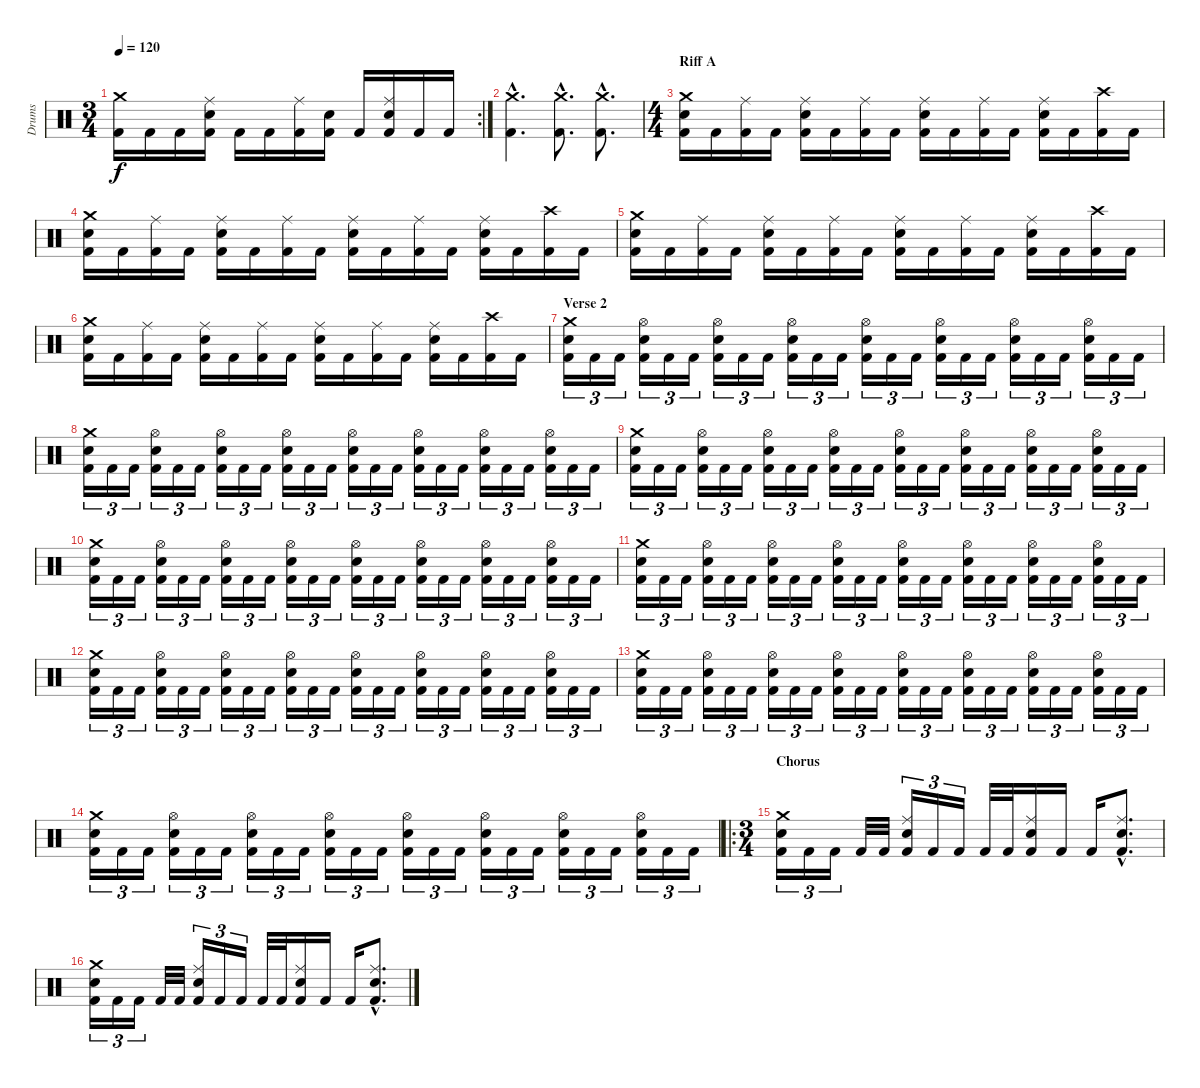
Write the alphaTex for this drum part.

\track ("Drums" "Drums") {instrument percussion}
\staff {score}
\articulation defaults
\rc 2
\ts (3 4)
\tempo 120
\clef neutral
\ks c
("Crash medium (hit)" "Kick (hit) 2").16{dy f} "Kick (hit) 2".16 "Kick (hit) 2".16 ("Ride (middle)" "Electric Snare (hit)" "Kick (hit) 2").16 "Kick (hit) 2".16 "Kick (hit) 2".16 ("Ride (middle)" "Kick (hit) 2").16 ("Electric Snare (hit)" "Kick (hit) 2").16 "Kick (hit) 2".16 ("Ride (middle)" "Electric Snare (hit)" "Kick (hit) 2").16 "Kick (hit) 2".16 "Kick (hit) 2".16 |
("Crash medium (hit)"{hac} "Kick (hit) 2"{hac}).4{d} ("Crash medium (hit)"{hac} "Kick (hit) 2"{hac}).8{d} ("Crash medium (hit)"{hac} "Kick (hit) 2"{hac}).8{d} |
\ts (4 4)
\section ("" "Riff A")
("Crash medium (hit)" "Electric Snare (hit)" "Kick (hit) 2").16 "Kick (hit) 2".16 ("Ride (middle)" "Kick (hit) 2").16 "Kick (hit) 2".16 ("Ride (middle)" "Electric Snare (hit)" "Kick (hit) 2").16 "Kick (hit) 2".16 ("Ride (middle)" "Kick (hit) 2").16 "Kick (hit) 2".16 ("Ride (middle)" "Electric Snare (hit)" "Kick (hit) 2").16 "Kick (hit) 2".16 ("Ride (middle)" "Kick (hit) 2").16 "Kick (hit) 2".16 ("Ride (middle)" "Electric Snare (hit)" "Kick (hit) 2").16 "Kick (hit) 2".16 ("Crash high (hit)" "Kick (hit) 2").16 "Kick (hit) 2".16 |
("Crash medium (hit)" "Electric Snare (hit)" "Kick (hit) 2").16 "Kick (hit) 2".16 ("Ride (middle)" "Kick (hit) 2").16 "Kick (hit) 2".16 ("Ride (middle)" "Electric Snare (hit)" "Kick (hit) 2").16 "Kick (hit) 2".16 ("Ride (middle)" "Kick (hit) 2").16 "Kick (hit) 2".16 ("Ride (middle)" "Electric Snare (hit)" "Kick (hit) 2").16 "Kick (hit) 2".16 ("Ride (middle)" "Kick (hit) 2").16 "Kick (hit) 2".16 ("Ride (middle)" "Electric Snare (hit)" "Kick (hit) 2").16 "Kick (hit) 2".16 ("Crash high (hit)" "Kick (hit) 2").16 "Kick (hit) 2".16 |
("Crash medium (hit)" "Electric Snare (hit)" "Kick (hit) 2").16 "Kick (hit) 2".16 ("Ride (middle)" "Kick (hit) 2").16 "Kick (hit) 2".16 ("Ride (middle)" "Electric Snare (hit)" "Kick (hit) 2").16 "Kick (hit) 2".16 ("Ride (middle)" "Kick (hit) 2").16 "Kick (hit) 2".16 ("Ride (middle)" "Electric Snare (hit)" "Kick (hit) 2").16 "Kick (hit) 2".16 ("Ride (middle)" "Kick (hit) 2").16 "Kick (hit) 2".16 ("Ride (middle)" "Electric Snare (hit)" "Kick (hit) 2").16 "Kick (hit) 2".16 ("Crash high (hit)" "Kick (hit) 2").16 "Kick (hit) 2".16 |
("Crash medium (hit)" "Electric Snare (hit)" "Kick (hit) 2").16 "Kick (hit) 2".16 ("Ride (middle)" "Kick (hit) 2").16 "Kick (hit) 2".16 ("Ride (middle)" "Electric Snare (hit)" "Kick (hit) 2").16 "Kick (hit) 2".16 ("Ride (middle)" "Kick (hit) 2").16 "Kick (hit) 2".16 ("Ride (middle)" "Electric Snare (hit)" "Kick (hit) 2").16 "Kick (hit) 2".16 ("Ride (middle)" "Kick (hit) 2").16 "Kick (hit) 2".16 ("Ride (middle)" "Electric Snare (hit)" "Kick (hit) 2").16 "Kick (hit) 2".16 ("Crash high (hit)" "Kick (hit) 2").16 "Kick (hit) 2".16 |
\section ("" "Verse 2")
("Crash medium (hit)" "Electric Snare (hit)" "Kick (hit) 2").16{tu (3 2)} "Kick (hit) 2".16{tu (3 2)} "Kick (hit) 2".16{tu (3 2)} ("Hi-Hat (open)" "Electric Snare (hit)" "Kick (hit) 2").16{tu (3 2)} "Kick (hit) 2".16{tu (3 2)} "Kick (hit) 2".16{tu (3 2)} ("Hi-Hat (open)" "Electric Snare (hit)" "Kick (hit) 2").16{tu (3 2)} "Kick (hit) 2".16{tu (3 2)} "Kick (hit) 2".16{tu (3 2)} ("Hi-Hat (open)" "Electric Snare (hit)" "Kick (hit) 2").16{tu (3 2)} "Kick (hit) 2".16{tu (3 2)} "Kick (hit) 2".16{tu (3 2)} ("Hi-Hat (open)" "Electric Snare (hit)" "Kick (hit) 2").16{tu (3 2)} "Kick (hit) 2".16{tu (3 2)} "Kick (hit) 2".16{tu (3 2)} ("Hi-Hat (open)" "Electric Snare (hit)" "Kick (hit) 2").16{tu (3 2)} "Kick (hit) 2".16{tu (3 2)} "Kick (hit) 2".16{tu (3 2)} ("Hi-Hat (open)" "Electric Snare (hit)" "Kick (hit) 2").16{tu (3 2)} "Kick (hit) 2".16{tu (3 2)} "Kick (hit) 2".16{tu (3 2)} ("Hi-Hat (open)" "Electric Snare (hit)" "Kick (hit) 2").16{tu (3 2)} "Kick (hit) 2".16{tu (3 2)} "Kick (hit) 2".16{tu (3 2)} |
("Crash medium (hit)" "Electric Snare (hit)" "Kick (hit) 2").16{tu (3 2)} "Kick (hit) 2".16{tu (3 2)} "Kick (hit) 2".16{tu (3 2)} ("Hi-Hat (open)" "Electric Snare (hit)" "Kick (hit) 2").16{tu (3 2)} "Kick (hit) 2".16{tu (3 2)} "Kick (hit) 2".16{tu (3 2)} ("Hi-Hat (open)" "Electric Snare (hit)" "Kick (hit) 2").16{tu (3 2)} "Kick (hit) 2".16{tu (3 2)} "Kick (hit) 2".16{tu (3 2)} ("Hi-Hat (open)" "Electric Snare (hit)" "Kick (hit) 2").16{tu (3 2)} "Kick (hit) 2".16{tu (3 2)} "Kick (hit) 2".16{tu (3 2)} ("Hi-Hat (open)" "Electric Snare (hit)" "Kick (hit) 2").16{tu (3 2)} "Kick (hit) 2".16{tu (3 2)} "Kick (hit) 2".16{tu (3 2)} ("Hi-Hat (open)" "Electric Snare (hit)" "Kick (hit) 2").16{tu (3 2)} "Kick (hit) 2".16{tu (3 2)} "Kick (hit) 2".16{tu (3 2)} ("Hi-Hat (open)" "Electric Snare (hit)" "Kick (hit) 2").16{tu (3 2)} "Kick (hit) 2".16{tu (3 2)} "Kick (hit) 2".16{tu (3 2)} ("Hi-Hat (open)" "Electric Snare (hit)" "Kick (hit) 2").16{tu (3 2)} "Kick (hit) 2".16{tu (3 2)} "Kick (hit) 2".16{tu (3 2)} |
("Crash medium (hit)" "Electric Snare (hit)" "Kick (hit) 2").16{tu (3 2)} "Kick (hit) 2".16{tu (3 2)} "Kick (hit) 2".16{tu (3 2)} ("Hi-Hat (open)" "Electric Snare (hit)" "Kick (hit) 2").16{tu (3 2)} "Kick (hit) 2".16{tu (3 2)} "Kick (hit) 2".16{tu (3 2)} ("Hi-Hat (open)" "Electric Snare (hit)" "Kick (hit) 2").16{tu (3 2)} "Kick (hit) 2".16{tu (3 2)} "Kick (hit) 2".16{tu (3 2)} ("Hi-Hat (open)" "Electric Snare (hit)" "Kick (hit) 2").16{tu (3 2)} "Kick (hit) 2".16{tu (3 2)} "Kick (hit) 2".16{tu (3 2)} ("Hi-Hat (open)" "Electric Snare (hit)" "Kick (hit) 2").16{tu (3 2)} "Kick (hit) 2".16{tu (3 2)} "Kick (hit) 2".16{tu (3 2)} ("Hi-Hat (open)" "Electric Snare (hit)" "Kick (hit) 2").16{tu (3 2)} "Kick (hit) 2".16{tu (3 2)} "Kick (hit) 2".16{tu (3 2)} ("Hi-Hat (open)" "Electric Snare (hit)" "Kick (hit) 2").16{tu (3 2)} "Kick (hit) 2".16{tu (3 2)} "Kick (hit) 2".16{tu (3 2)} ("Hi-Hat (open)" "Electric Snare (hit)" "Kick (hit) 2").16{tu (3 2)} "Kick (hit) 2".16{tu (3 2)} "Kick (hit) 2".16{tu (3 2)} |
("Crash medium (hit)" "Electric Snare (hit)" "Kick (hit) 2").16{tu (3 2)} "Kick (hit) 2".16{tu (3 2)} "Kick (hit) 2".16{tu (3 2)} ("Hi-Hat (open)" "Electric Snare (hit)" "Kick (hit) 2").16{tu (3 2)} "Kick (hit) 2".16{tu (3 2)} "Kick (hit) 2".16{tu (3 2)} ("Hi-Hat (open)" "Electric Snare (hit)" "Kick (hit) 2").16{tu (3 2)} "Kick (hit) 2".16{tu (3 2)} "Kick (hit) 2".16{tu (3 2)} ("Hi-Hat (open)" "Electric Snare (hit)" "Kick (hit) 2").16{tu (3 2)} "Kick (hit) 2".16{tu (3 2)} "Kick (hit) 2".16{tu (3 2)} ("Hi-Hat (open)" "Electric Snare (hit)" "Kick (hit) 2").16{tu (3 2)} "Kick (hit) 2".16{tu (3 2)} "Kick (hit) 2".16{tu (3 2)} ("Hi-Hat (open)" "Electric Snare (hit)" "Kick (hit) 2").16{tu (3 2)} "Kick (hit) 2".16{tu (3 2)} "Kick (hit) 2".16{tu (3 2)} ("Hi-Hat (open)" "Electric Snare (hit)" "Kick (hit) 2").16{tu (3 2)} "Kick (hit) 2".16{tu (3 2)} "Kick (hit) 2".16{tu (3 2)} ("Hi-Hat (open)" "Electric Snare (hit)" "Kick (hit) 2").16{tu (3 2)} "Kick (hit) 2".16{tu (3 2)} "Kick (hit) 2".16{tu (3 2)} |
("Crash medium (hit)" "Electric Snare (hit)" "Kick (hit) 2").16{tu (3 2)} "Kick (hit) 2".16{tu (3 2)} "Kick (hit) 2".16{tu (3 2)} ("Hi-Hat (open)" "Electric Snare (hit)" "Kick (hit) 2").16{tu (3 2)} "Kick (hit) 2".16{tu (3 2)} "Kick (hit) 2".16{tu (3 2)} ("Hi-Hat (open)" "Electric Snare (hit)" "Kick (hit) 2").16{tu (3 2)} "Kick (hit) 2".16{tu (3 2)} "Kick (hit) 2".16{tu (3 2)} ("Hi-Hat (open)" "Electric Snare (hit)" "Kick (hit) 2").16{tu (3 2)} "Kick (hit) 2".16{tu (3 2)} "Kick (hit) 2".16{tu (3 2)} ("Hi-Hat (open)" "Electric Snare (hit)" "Kick (hit) 2").16{tu (3 2)} "Kick (hit) 2".16{tu (3 2)} "Kick (hit) 2".16{tu (3 2)} ("Hi-Hat (open)" "Electric Snare (hit)" "Kick (hit) 2").16{tu (3 2)} "Kick (hit) 2".16{tu (3 2)} "Kick (hit) 2".16{tu (3 2)} ("Hi-Hat (open)" "Electric Snare (hit)" "Kick (hit) 2").16{tu (3 2)} "Kick (hit) 2".16{tu (3 2)} "Kick (hit) 2".16{tu (3 2)} ("Hi-Hat (open)" "Electric Snare (hit)" "Kick (hit) 2").16{tu (3 2)} "Kick (hit) 2".16{tu (3 2)} "Kick (hit) 2".16{tu (3 2)} |
("Crash medium (hit)" "Electric Snare (hit)" "Kick (hit) 2").16{tu (3 2)} "Kick (hit) 2".16{tu (3 2)} "Kick (hit) 2".16{tu (3 2)} ("Hi-Hat (open)" "Electric Snare (hit)" "Kick (hit) 2").16{tu (3 2)} "Kick (hit) 2".16{tu (3 2)} "Kick (hit) 2".16{tu (3 2)} ("Hi-Hat (open)" "Electric Snare (hit)" "Kick (hit) 2").16{tu (3 2)} "Kick (hit) 2".16{tu (3 2)} "Kick (hit) 2".16{tu (3 2)} ("Hi-Hat (open)" "Electric Snare (hit)" "Kick (hit) 2").16{tu (3 2)} "Kick (hit) 2".16{tu (3 2)} "Kick (hit) 2".16{tu (3 2)} ("Hi-Hat (open)" "Electric Snare (hit)" "Kick (hit) 2").16{tu (3 2)} "Kick (hit) 2".16{tu (3 2)} "Kick (hit) 2".16{tu (3 2)} ("Hi-Hat (open)" "Electric Snare (hit)" "Kick (hit) 2").16{tu (3 2)} "Kick (hit) 2".16{tu (3 2)} "Kick (hit) 2".16{tu (3 2)} ("Hi-Hat (open)" "Electric Snare (hit)" "Kick (hit) 2").16{tu (3 2)} "Kick (hit) 2".16{tu (3 2)} "Kick (hit) 2".16{tu (3 2)} ("Hi-Hat (open)" "Electric Snare (hit)" "Kick (hit) 2").16{tu (3 2)} "Kick (hit) 2".16{tu (3 2)} "Kick (hit) 2".16{tu (3 2)} |
("Crash medium (hit)" "Electric Snare (hit)" "Kick (hit) 2").16{tu (3 2)} "Kick (hit) 2".16{tu (3 2)} "Kick (hit) 2".16{tu (3 2)} ("Hi-Hat (open)" "Electric Snare (hit)" "Kick (hit) 2").16{tu (3 2)} "Kick (hit) 2".16{tu (3 2)} "Kick (hit) 2".16{tu (3 2)} ("Hi-Hat (open)" "Electric Snare (hit)" "Kick (hit) 2").16{tu (3 2)} "Kick (hit) 2".16{tu (3 2)} "Kick (hit) 2".16{tu (3 2)} ("Hi-Hat (open)" "Electric Snare (hit)" "Kick (hit) 2").16{tu (3 2)} "Kick (hit) 2".16{tu (3 2)} "Kick (hit) 2".16{tu (3 2)} ("Hi-Hat (open)" "Electric Snare (hit)" "Kick (hit) 2").16{tu (3 2)} "Kick (hit) 2".16{tu (3 2)} "Kick (hit) 2".16{tu (3 2)} ("Hi-Hat (open)" "Electric Snare (hit)" "Kick (hit) 2").16{tu (3 2)} "Kick (hit) 2".16{tu (3 2)} "Kick (hit) 2".16{tu (3 2)} ("Hi-Hat (open)" "Electric Snare (hit)" "Kick (hit) 2").16{tu (3 2)} "Kick (hit) 2".16{tu (3 2)} "Kick (hit) 2".16{tu (3 2)} ("Hi-Hat (open)" "Electric Snare (hit)" "Kick (hit) 2").16{tu (3 2)} "Kick (hit) 2".16{tu (3 2)} "Kick (hit) 2".16{tu (3 2)} |
("Crash medium (hit)" "Electric Snare (hit)" "Kick (hit) 2").16{tu (3 2)} "Kick (hit) 2".16{tu (3 2)} "Kick (hit) 2".16{tu (3 2)} ("Hi-Hat (open)" "Electric Snare (hit)" "Kick (hit) 2").16{tu (3 2)} "Kick (hit) 2".16{tu (3 2)} "Kick (hit) 2".16{tu (3 2)} ("Hi-Hat (open)" "Electric Snare (hit)" "Kick (hit) 2").16{tu (3 2)} "Kick (hit) 2".16{tu (3 2)} "Kick (hit) 2".16{tu (3 2)} ("Hi-Hat (open)" "Electric Snare (hit)" "Kick (hit) 2").16{tu (3 2)} "Kick (hit) 2".16{tu (3 2)} "Kick (hit) 2".16{tu (3 2)} ("Hi-Hat (open)" "Electric Snare (hit)" "Kick (hit) 2").16{tu (3 2)} "Kick (hit) 2".16{tu (3 2)} "Kick (hit) 2".16{tu (3 2)} ("Hi-Hat (open)" "Electric Snare (hit)" "Kick (hit) 2").16{tu (3 2)} "Kick (hit) 2".16{tu (3 2)} "Kick (hit) 2".16{tu (3 2)} ("Hi-Hat (open)" "Electric Snare (hit)" "Kick (hit) 2").16{tu (3 2)} "Kick (hit) 2".16{tu (3 2)} "Kick (hit) 2".16{tu (3 2)} ("Hi-Hat (open)" "Electric Snare (hit)" "Kick (hit) 2").16{tu (3 2)} "Kick (hit) 2".16{tu (3 2)} "Kick (hit) 2".16{tu (3 2)} |
\ro
\ts (3 4)
\section ("" "Chorus")
("Crash medium (hit)" "Electric Snare (hit)" "Kick (hit) 2").16{tu (3 2)} "Kick (hit) 2".16{tu (3 2)} "Kick (hit) 2".16{tu (3 2)} "Kick (hit) 2".32 "Kick (hit) 2".32 ("Ride (middle)" "Electric Snare (hit)" "Kick (hit) 2").16{tu (3 2)} "Kick (hit) 2".16{tu (3 2)} "Kick (hit) 2".16{tu (3 2)} "Kick (hit) 2".32 "Kick (hit) 2".32 ("Ride (middle)" "Electric Snare (hit)" "Kick (hit) 2").16 "Kick (hit) 2".16 "Kick (hit) 2".16 ("Ride (middle)"{hac} "Electric Snare (hit)"{hac} "Kick (hit) 2"{hac}).8{d} |
("Crash medium (hit)" "Electric Snare (hit)" "Kick (hit) 2").16{tu (3 2)} "Kick (hit) 2".16{tu (3 2)} "Kick (hit) 2".16{tu (3 2)} "Kick (hit) 2".32 "Kick (hit) 2".32 ("Ride (middle)" "Electric Snare (hit)" "Kick (hit) 2").16{tu (3 2)} "Kick (hit) 2".16{tu (3 2)} "Kick (hit) 2".16{tu (3 2)} "Kick (hit) 2".32 "Kick (hit) 2".32 ("Ride (middle)" "Electric Snare (hit)" "Kick (hit) 2").16 "Kick (hit) 2".16 "Kick (hit) 2".16 ("Ride (middle)"{hac} "Electric Snare (hit)"{hac} "Kick (hit) 2"{hac}).8{d}
